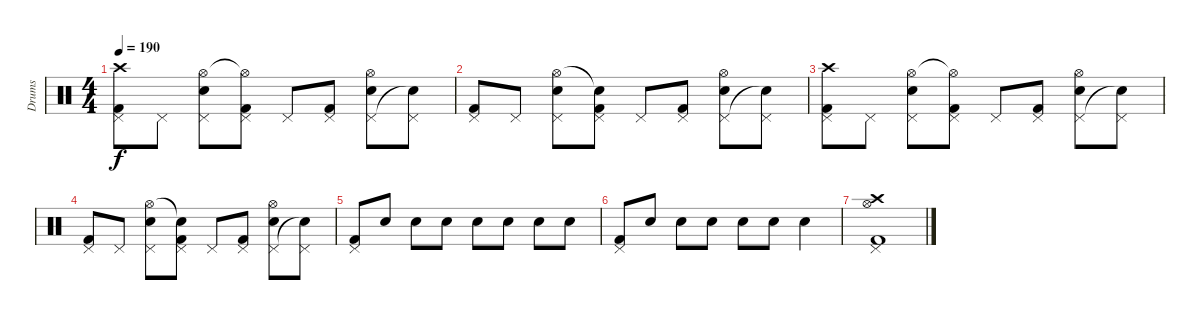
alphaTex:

\track ("Drums" "Drums") {instrument percussion}
\staff {score}
\articulation defaults
\ts (4 4)
\tempo 190
\clef neutral
\ks c
("Kick (hit) 2" "Pedal Hi-Hat (hit)" "Crash high (hit)").8{dy f} "Pedal Hi-Hat (hit)".8 ("Snare (hit) 2" "Pedal Hi-Hat (hit)" "Hi-Hat (open)").8 ("Kick (hit) 2" "Pedal Hi-Hat (hit)" "Hi-Hat (open)"{t}).8 "Pedal Hi-Hat (hit)".8 ("Kick (hit) 2" "Pedal Hi-Hat (hit)").8 ("Snare (hit) 2" "Pedal Hi-Hat (hit)" "Hi-Hat (open)").8 ("Pedal Hi-Hat (hit)" "Snare (hit)"{t}).8 |
("Kick (hit) 2" "Pedal Hi-Hat (hit)").8 "Pedal Hi-Hat (hit)".8 ("Snare (hit) 2" "Pedal Hi-Hat (hit)" "Hi-Hat (open)").8 ("Kick (hit) 2" "Pedal Hi-Hat (hit)" "Snare (hit)"{t}).8 "Pedal Hi-Hat (hit)".8 ("Kick (hit) 2" "Pedal Hi-Hat (hit)").8 ("Snare (hit) 2" "Pedal Hi-Hat (hit)" "Hi-Hat (open)").8 ("Pedal Hi-Hat (hit)" "Snare (hit)"{t}).8 |
("Kick (hit) 2" "Pedal Hi-Hat (hit)" "Crash high (hit)").8 "Pedal Hi-Hat (hit)".8 ("Snare (hit) 2" "Pedal Hi-Hat (hit)" "Hi-Hat (open)").8 ("Kick (hit) 2" "Pedal Hi-Hat (hit)" "Hi-Hat (open)"{t}).8 "Pedal Hi-Hat (hit)".8 ("Kick (hit) 2" "Pedal Hi-Hat (hit)").8 ("Snare (hit) 2" "Pedal Hi-Hat (hit)" "Hi-Hat (open)").8 ("Pedal Hi-Hat (hit)" "Snare (hit)"{t}).8 |
("Kick (hit) 2" "Pedal Hi-Hat (hit)").8 "Pedal Hi-Hat (hit)".8 ("Snare (hit) 2" "Pedal Hi-Hat (hit)" "Hi-Hat (open)").8 ("Kick (hit) 2" "Pedal Hi-Hat (hit)" "Snare (hit)"{t}).8 "Pedal Hi-Hat (hit)".8 ("Kick (hit) 2" "Pedal Hi-Hat (hit)").8 ("Snare (hit) 2" "Pedal Hi-Hat (hit)" "Hi-Hat (open)").8 ("Pedal Hi-Hat (hit)" "Snare (hit)"{t}).8 |
("Kick (hit) 2" "Pedal Hi-Hat (hit)").8 "Snare (hit) 2".8 "Snare (hit) 2".8 "Snare (hit) 2".8 "Snare (hit) 2".8 "Snare (hit) 2".8 "Snare (hit) 2".8 "Snare (hit) 2".8 |
("Kick (hit) 2" "Pedal Hi-Hat (hit)").8 "Snare (hit) 2".8 "Snare (hit) 2".8 "Snare (hit) 2".8 "Snare (hit) 2".8 "Snare (hit) 2".8 "Snare (hit) 2".4 |
("Kick (hit) 2" "Pedal Hi-Hat (hit)" "Hi-Hat (open)" "Crash high (hit)").1
